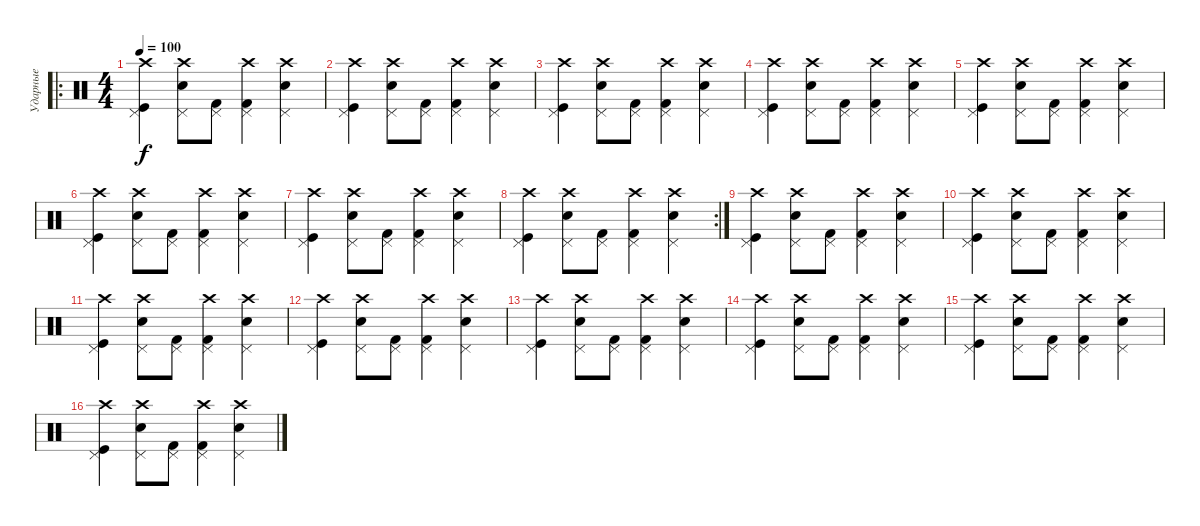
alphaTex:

\track ("Ударные" "Ударные") {instrument percussion}
\staff {score}
\articulation defaults
\ro
\ts (4 4)
\tempo 100
\clef neutral
\ks c
("Crash high (hit)" "Pedal Hi-Hat (hit)" "Kick (hit)").4{dy f} ("Crash high (hit)" "Pedal Hi-Hat (hit)" "Electric Snare (hit)").8 ("Pedal Hi-Hat (hit)" "Kick (hit) 2").8 ("Crash high (hit)" "Pedal Hi-Hat (hit)" "Kick (hit) 2").4 ("Crash high (hit)" "Pedal Hi-Hat (hit)" "Electric Snare (hit)").4 |
("Crash high (hit)" "Pedal Hi-Hat (hit)" "Kick (hit)").4 ("Crash high (hit)" "Pedal Hi-Hat (hit)" "Electric Snare (hit)").8 ("Pedal Hi-Hat (hit)" "Kick (hit) 2").8 ("Crash high (hit)" "Pedal Hi-Hat (hit)" "Kick (hit) 2").4 ("Crash high (hit)" "Pedal Hi-Hat (hit)" "Electric Snare (hit)").4 |
("Crash high (hit)" "Pedal Hi-Hat (hit)" "Kick (hit)").4 ("Crash high (hit)" "Pedal Hi-Hat (hit)" "Electric Snare (hit)").8 ("Pedal Hi-Hat (hit)" "Kick (hit) 2").8 ("Crash high (hit)" "Pedal Hi-Hat (hit)" "Kick (hit) 2").4 ("Crash high (hit)" "Pedal Hi-Hat (hit)" "Electric Snare (hit)").4 |
("Crash high (hit)" "Pedal Hi-Hat (hit)" "Kick (hit)").4 ("Crash high (hit)" "Pedal Hi-Hat (hit)" "Electric Snare (hit)").8 ("Pedal Hi-Hat (hit)" "Kick (hit) 2").8 ("Crash high (hit)" "Pedal Hi-Hat (hit)" "Kick (hit) 2").4 ("Crash high (hit)" "Pedal Hi-Hat (hit)" "Electric Snare (hit)").4 |
("Crash high (hit)" "Pedal Hi-Hat (hit)" "Kick (hit)").4 ("Crash high (hit)" "Pedal Hi-Hat (hit)" "Electric Snare (hit)").8 ("Pedal Hi-Hat (hit)" "Kick (hit) 2").8 ("Crash high (hit)" "Pedal Hi-Hat (hit)" "Kick (hit) 2").4 ("Crash high (hit)" "Pedal Hi-Hat (hit)" "Electric Snare (hit)").4 |
("Crash high (hit)" "Pedal Hi-Hat (hit)" "Kick (hit)").4 ("Crash high (hit)" "Pedal Hi-Hat (hit)" "Electric Snare (hit)").8 ("Pedal Hi-Hat (hit)" "Kick (hit) 2").8 ("Crash high (hit)" "Pedal Hi-Hat (hit)" "Kick (hit) 2").4 ("Crash high (hit)" "Pedal Hi-Hat (hit)" "Electric Snare (hit)").4 |
("Crash high (hit)" "Pedal Hi-Hat (hit)" "Kick (hit)").4 ("Crash high (hit)" "Pedal Hi-Hat (hit)" "Electric Snare (hit)").8 ("Pedal Hi-Hat (hit)" "Kick (hit) 2").8 ("Crash high (hit)" "Pedal Hi-Hat (hit)" "Kick (hit) 2").4 ("Crash high (hit)" "Pedal Hi-Hat (hit)" "Electric Snare (hit)").4 |
\rc 2
("Crash high (hit)" "Pedal Hi-Hat (hit)" "Kick (hit)").4 ("Crash high (hit)" "Pedal Hi-Hat (hit)" "Electric Snare (hit)").8 ("Pedal Hi-Hat (hit)" "Kick (hit) 2").8 ("Crash high (hit)" "Pedal Hi-Hat (hit)" "Kick (hit) 2").4 ("Crash high (hit)" "Pedal Hi-Hat (hit)" "Electric Snare (hit)").4 |
("Crash high (hit)" "Pedal Hi-Hat (hit)" "Kick (hit)").4 ("Crash high (hit)" "Pedal Hi-Hat (hit)" "Electric Snare (hit)").8 ("Pedal Hi-Hat (hit)" "Kick (hit) 2").8 ("Crash high (hit)" "Pedal Hi-Hat (hit)" "Kick (hit) 2").4 ("Crash high (hit)" "Pedal Hi-Hat (hit)" "Electric Snare (hit)").4 |
("Crash high (hit)" "Pedal Hi-Hat (hit)" "Kick (hit)").4 ("Crash high (hit)" "Pedal Hi-Hat (hit)" "Electric Snare (hit)").8 ("Pedal Hi-Hat (hit)" "Kick (hit) 2").8 ("Crash high (hit)" "Pedal Hi-Hat (hit)" "Kick (hit) 2").4 ("Crash high (hit)" "Pedal Hi-Hat (hit)" "Electric Snare (hit)").4 |
("Crash high (hit)" "Pedal Hi-Hat (hit)" "Kick (hit)").4 ("Crash high (hit)" "Pedal Hi-Hat (hit)" "Electric Snare (hit)").8 ("Pedal Hi-Hat (hit)" "Kick (hit) 2").8 ("Crash high (hit)" "Pedal Hi-Hat (hit)" "Kick (hit) 2").4 ("Crash high (hit)" "Pedal Hi-Hat (hit)" "Electric Snare (hit)").4 |
("Crash high (hit)" "Pedal Hi-Hat (hit)" "Kick (hit)").4 ("Crash high (hit)" "Pedal Hi-Hat (hit)" "Electric Snare (hit)").8 ("Pedal Hi-Hat (hit)" "Kick (hit) 2").8 ("Crash high (hit)" "Pedal Hi-Hat (hit)" "Kick (hit) 2").4 ("Crash high (hit)" "Pedal Hi-Hat (hit)" "Electric Snare (hit)").4 |
("Crash high (hit)" "Pedal Hi-Hat (hit)" "Kick (hit)").4 ("Crash high (hit)" "Pedal Hi-Hat (hit)" "Electric Snare (hit)").8 ("Pedal Hi-Hat (hit)" "Kick (hit) 2").8 ("Crash high (hit)" "Pedal Hi-Hat (hit)" "Kick (hit) 2").4 ("Crash high (hit)" "Pedal Hi-Hat (hit)" "Electric Snare (hit)").4 |
("Crash high (hit)" "Pedal Hi-Hat (hit)" "Kick (hit)").4 ("Crash high (hit)" "Pedal Hi-Hat (hit)" "Electric Snare (hit)").8 ("Pedal Hi-Hat (hit)" "Kick (hit) 2").8 ("Crash high (hit)" "Pedal Hi-Hat (hit)" "Kick (hit) 2").4 ("Crash high (hit)" "Pedal Hi-Hat (hit)" "Electric Snare (hit)").4 |
("Crash high (hit)" "Pedal Hi-Hat (hit)" "Kick (hit)").4 ("Crash high (hit)" "Pedal Hi-Hat (hit)" "Electric Snare (hit)").8 ("Pedal Hi-Hat (hit)" "Kick (hit) 2").8 ("Crash high (hit)" "Pedal Hi-Hat (hit)" "Kick (hit) 2").4 ("Crash high (hit)" "Pedal Hi-Hat (hit)" "Electric Snare (hit)").4 |
("Crash high (hit)" "Pedal Hi-Hat (hit)" "Kick (hit)").4 ("Crash high (hit)" "Pedal Hi-Hat (hit)" "Electric Snare (hit)").8 ("Pedal Hi-Hat (hit)" "Kick (hit) 2").8 ("Crash high (hit)" "Pedal Hi-Hat (hit)" "Kick (hit) 2").4 ("Crash high (hit)" "Pedal Hi-Hat (hit)" "Electric Snare (hit)").4
